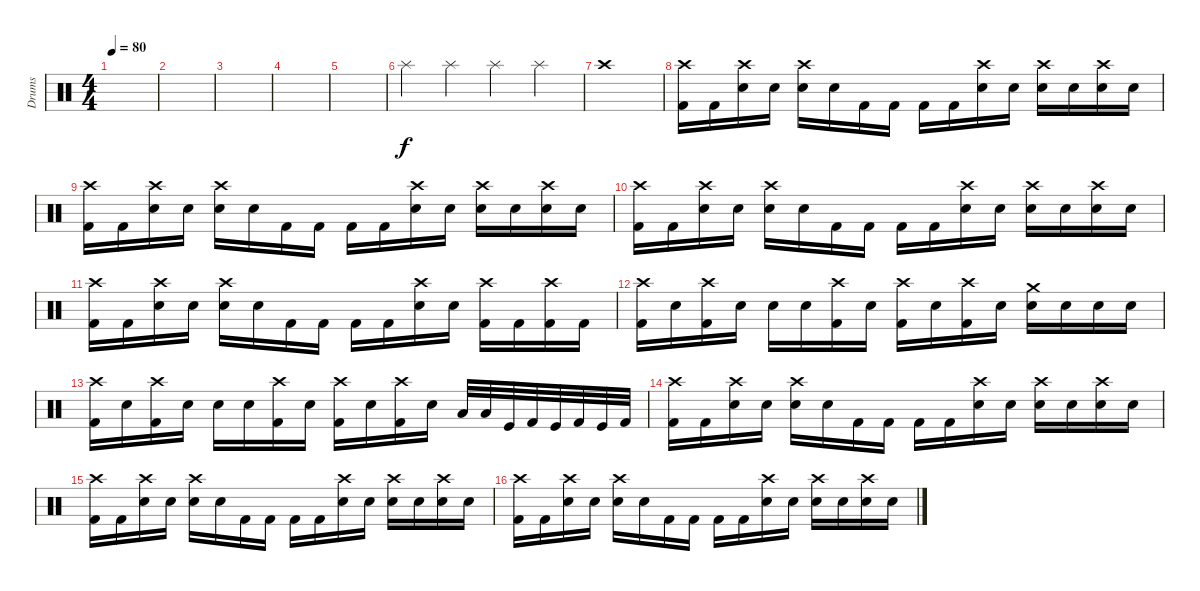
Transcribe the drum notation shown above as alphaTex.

\track ("Drums" "Drums") {instrument percussion}
\staff {score}
\articulation defaults
\ts (4 4)
\tempo 80
\clef neutral
\ks c
|
|
|
|
|
"Splash (hit)".4 "Splash (hit)".4 "Splash (hit)".4 "Splash (hit)".4 |
"Crash high (hit)".1 |
\section ("" "")
("Crash high (hit)" "Kick (hit) 2").16 "Kick (hit) 2".16 ("Crash high (hit)" "Snare (hit)"{x}).16 "Snare (hit)"{x}.16 ("Crash high (hit)" "Snare (hit) 2").16 "Snare (hit)"{x}.16 "Kick (hit) 2".16 "Kick (hit) 2".16 "Kick (hit) 2".16 "Kick (hit) 2".16 ("Crash high (hit)" "Snare (hit)"{x}).16 "Snare (hit)"{x}.16 ("Crash high (hit)" "Snare (hit) 2").16 "Snare (hit)"{x}.16 ("Crash high (hit)" "Snare (hit)"{x}).16 "Snare (hit)"{x}.16 |
("Crash high (hit)" "Kick (hit) 2").16 "Kick (hit) 2".16 ("Crash high (hit)" "Snare (hit)"{x}).16 "Snare (hit)"{x}.16 ("Crash high (hit)" "Snare (hit) 2").16 "Snare (hit)"{x}.16 "Kick (hit) 2".16 "Kick (hit) 2".16 "Kick (hit) 2".16 "Kick (hit) 2".16 ("Crash high (hit)" "Snare (hit)"{x}).16 "Snare (hit)"{x}.16 ("Crash high (hit)" "Snare (hit) 2").16 "Snare (hit)"{x}.16 ("Crash high (hit)" "Snare (hit)"{x}).16 "Snare (hit)"{x}.16 |
("Crash high (hit)" "Kick (hit) 2").16 "Kick (hit) 2".16 ("Crash high (hit)" "Snare (hit)"{x}).16 "Snare (hit)"{x}.16 ("Crash high (hit)" "Snare (hit) 2").16 "Snare (hit)"{x}.16 "Kick (hit) 2".16 "Kick (hit) 2".16 "Kick (hit) 2".16 "Kick (hit) 2".16 ("Crash high (hit)" "Snare (hit)"{x}).16 "Snare (hit)"{x}.16 ("Crash high (hit)" "Snare (hit) 2").16 "Snare (hit)"{x}.16 ("Crash high (hit)" "Snare (hit)"{x}).16 "Snare (hit)"{x}.16 |
("Crash high (hit)" "Kick (hit) 2").16 "Kick (hit) 2".16 ("Crash high (hit)" "Snare (hit)"{x}).16 "Snare (hit)"{x}.16 ("Crash high (hit)" "Snare (hit) 2").16 "Snare (hit)"{x}.16 "Kick (hit) 2".16 "Kick (hit) 2".16 "Kick (hit) 2".16 "Kick (hit) 2".16 ("Crash high (hit)" "Snare (hit)"{x}).16 "Snare (hit)"{x}.16 ("Crash high (hit)" "Kick (hit) 2").16 "Kick (hit) 2".16 ("Crash high (hit)" "Kick (hit) 2").16 "Kick (hit) 2".16 |
("Crash high (hit)" "Kick (hit) 2").16 "Snare (hit)"{x}.16 ("Crash high (hit)" "Kick (hit) 2").16 "Snare (hit)"{x}.16 "Snare (hit) 2".16 "Snare (hit)"{x}.16 ("Crash high (hit)" "Kick (hit) 2").16 "Snare (hit)"{x}.16 ("Crash high (hit)" "Kick (hit) 2").16 "Snare (hit)"{x}.16 ("Crash high (hit)" "Kick (hit) 2").16 "Snare (hit)"{x}.16 ("Crash medium (hit)" "Snare (hit) 2").16 "Snare (hit)"{x}.16 "Snare (hit) 2".16 "Snare (hit) 2".16 |
("Crash high (hit)" "Kick (hit) 2").16 "Snare (hit)"{x}.16 ("Crash high (hit)" "Kick (hit) 2").16 "Snare (hit)"{x}.16 "Snare (hit) 2".16 "Snare (hit)"{x}.16 ("Crash high (hit)" "Kick (hit) 2").16 "Snare (hit)"{x}.16 ("Crash high (hit)" "Kick (hit) 2").16 "Snare (hit)"{x}.16 ("Crash high (hit)" "Kick (hit) 2").16 "Snare (hit)"{x}.16 "Low Floor Tom (hit)".32 "Low Floor Tom (hit)".32 "Kick (hit)".32 "Kick (hit) 2".32 "Kick (hit)".32 "Kick (hit) 2".32 "Kick (hit)".32 "Kick (hit) 2".32 |
\section ("" "")
("Crash high (hit)" "Kick (hit) 2").16 "Kick (hit) 2".16 ("Crash high (hit)" "Snare (hit)"{x}).16 "Snare (hit)"{x}.16 ("Crash high (hit)" "Snare (hit) 2").16 "Snare (hit)"{x}.16 "Kick (hit) 2".16 "Kick (hit) 2".16 "Kick (hit) 2".16 "Kick (hit) 2".16 ("Crash high (hit)" "Snare (hit)"{x}).16 "Snare (hit)"{x}.16 ("Crash high (hit)" "Snare (hit) 2").16 "Snare (hit)"{x}.16 ("Crash high (hit)" "Snare (hit)"{x}).16 "Snare (hit)"{x}.16 |
("Crash high (hit)" "Kick (hit) 2").16 "Kick (hit) 2".16 ("Crash high (hit)" "Snare (hit)"{x}).16 "Snare (hit)"{x}.16 ("Crash high (hit)" "Snare (hit) 2").16 "Snare (hit)"{x}.16 "Kick (hit) 2".16 "Kick (hit) 2".16 "Kick (hit) 2".16 "Kick (hit) 2".16 ("Crash high (hit)" "Snare (hit)"{x}).16 "Snare (hit)"{x}.16 ("Crash high (hit)" "Snare (hit) 2").16 "Snare (hit)"{x}.16 ("Crash high (hit)" "Snare (hit) 2").16 "Snare (hit)"{x}.16 |
("Crash high (hit)" "Kick (hit) 2").16 "Kick (hit) 2".16 ("Crash high (hit)" "Snare (hit)"{x}).16 "Snare (hit)"{x}.16 ("Crash high (hit)" "Snare (hit) 2").16 "Snare (hit)"{x}.16 "Kick (hit) 2".16 "Kick (hit) 2".16 "Kick (hit) 2".16 "Kick (hit) 2".16 ("Crash high (hit)" "Snare (hit)"{x}).16 "Snare (hit)"{x}.16 ("Crash high (hit)" "Snare (hit) 2").16 "Snare (hit)"{x}.16 ("Crash high (hit)" "Snare (hit)"{x}).16 "Snare (hit)"{x}.16
